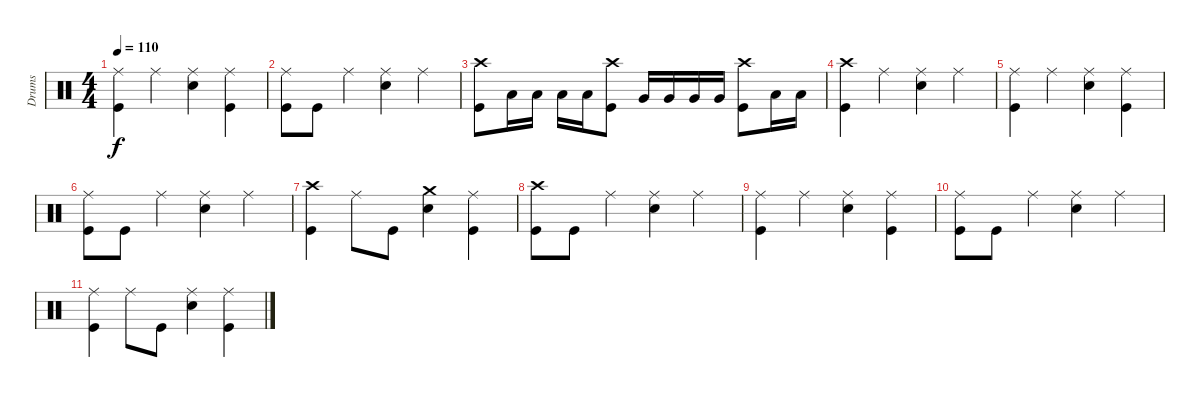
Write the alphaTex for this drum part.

\track ("Drums" "Drums") {instrument percussion}
\staff {score}
\articulation defaults
\ts (4 4)
\tempo 110
\clef neutral
\ks c
("Ride (middle)" "Kick (hit)").4{dy f} "Ride (middle)".4 ("Ride (middle)" "Electric Snare (hit)").4 ("Ride (middle)" "Kick (hit)").4 |
("Ride (middle)" "Kick (hit)").8{volume 7} "Kick (hit)".8 "Ride (middle)".4 ("Ride (middle)" "Electric Snare (hit)").4 "Ride (middle)".4 |
("Crash high (hit)" "Kick (hit)").8 "Low Tom (hit)".16 "Low Tom (hit)".16 "Low Tom (hit)".16 "Low Tom (hit)".16 ("Crash high (hit)" "Kick (hit)").8 "Very Low Tom (hit)".16 "Very Low Tom (hit)".16 "Very Low Tom (hit)".16 "Very Low Tom (hit)".16 ("Crash high (hit)" "Kick (hit)").8 "Low Floor Tom (hit)".16 "Low Floor Tom (hit)".16 |
("Crash high (hit)" "Kick (hit)").4{volume 5} "Ride (middle)".4 ("Ride (middle)" "Electric Snare (hit)").4 "Ride (middle)".4 |
("Ride (middle)" "Kick (hit)").4 "Ride (middle)".4 ("Ride (middle)" "Electric Snare (hit)").4 ("Ride (middle)" "Kick (hit)").4 |
("Ride (middle)" "Kick (hit)").8{volume 3} "Kick (hit)".8 "Ride (middle)".4 ("Ride (middle)" "Electric Snare (hit)").4 "Ride (middle)".4 |
("Crash high (hit)" "Kick (hit)").4 "Ride (middle)".8 "Kick (hit)".8 ("Crash medium (hit)" "Electric Snare (hit)").4 ("Ride (middle)" "Kick (hit)").4 |
("Crash high (hit)" "Kick (hit)").8{volume 1} "Kick (hit)".8 "Ride (middle)".4 ("Ride (middle)" "Electric Snare (hit)").4 "Ride (middle)".4 |
("Ride (middle)" "Kick (hit)").4 "Ride (middle)".4 ("Ride (middle)" "Electric Snare (hit)").4 ("Ride (middle)" "Kick (hit)").4 |
("Ride (middle)" "Kick (hit)").8{volume 0} "Kick (hit)".8 "Ride (middle)".4 ("Ride (middle)" "Electric Snare (hit)").4 "Ride (middle)".4 |
("Ride (middle)" "Kick (hit)").4 "Ride (middle)".8 "Kick (hit)".8 ("Ride (middle)" "Electric Snare (hit)").4 ("Ride (middle)" "Kick (hit)").4
